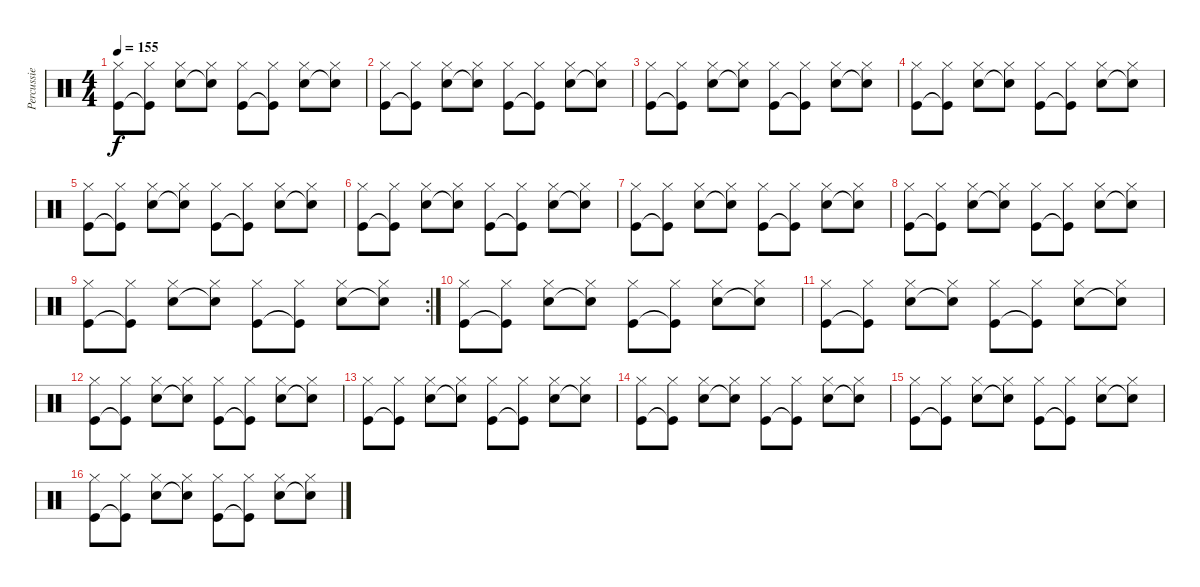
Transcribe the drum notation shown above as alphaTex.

\track ("Percussie" "Percussie") {instrument percussion}
\staff {score}
\articulation defaults
\ts (4 4)
\tempo 155
\clef neutral
\ks c
("Hi-Hat (closed)" "Kick (hit)").8{dy f} ("Hi-Hat (closed)" "Kick (hit)"{t}).8 ("Hi-Hat (closed)" "Snare (hit) 2").8 ("Hi-Hat (closed)" "Snare (hit) 2"{t}).8 ("Hi-Hat (closed)" "Kick (hit)").8 ("Hi-Hat (closed)" "Kick (hit)"{t}).8 ("Hi-Hat (closed)" "Snare (hit) 2").8 ("Hi-Hat (closed)" "Snare (hit) 2"{t}).8 |
("Hi-Hat (closed)" "Kick (hit)").8 ("Hi-Hat (closed)" "Kick (hit)"{t}).8 ("Hi-Hat (closed)" "Snare (hit) 2").8 ("Hi-Hat (closed)" "Snare (hit) 2"{t}).8 ("Hi-Hat (closed)" "Kick (hit)").8 ("Hi-Hat (closed)" "Kick (hit)"{t}).8 ("Hi-Hat (closed)" "Snare (hit) 2").8 ("Hi-Hat (closed)" "Snare (hit) 2"{t}).8 |
("Hi-Hat (closed)" "Kick (hit)").8 ("Hi-Hat (closed)" "Kick (hit)"{t}).8 ("Hi-Hat (closed)" "Snare (hit) 2").8 ("Hi-Hat (closed)" "Snare (hit) 2"{t}).8 ("Hi-Hat (closed)" "Kick (hit)").8 ("Hi-Hat (closed)" "Kick (hit)"{t}).8 ("Hi-Hat (closed)" "Snare (hit) 2").8 ("Hi-Hat (closed)" "Snare (hit) 2"{t}).8 |
("Hi-Hat (closed)" "Kick (hit)").8 ("Hi-Hat (closed)" "Kick (hit)"{t}).8 ("Hi-Hat (closed)" "Snare (hit) 2").8 ("Hi-Hat (closed)" "Snare (hit) 2"{t}).8 ("Hi-Hat (closed)" "Kick (hit)").8 ("Hi-Hat (closed)" "Kick (hit)"{t}).8 ("Hi-Hat (closed)" "Snare (hit) 2").8 ("Hi-Hat (closed)" "Snare (hit) 2"{t}).8 |
("Hi-Hat (closed)" "Kick (hit)").8 ("Hi-Hat (closed)" "Kick (hit)"{t}).8 ("Hi-Hat (closed)" "Snare (hit) 2").8 ("Hi-Hat (closed)" "Snare (hit) 2"{t}).8 ("Hi-Hat (closed)" "Kick (hit)").8 ("Hi-Hat (closed)" "Kick (hit)"{t}).8 ("Hi-Hat (closed)" "Snare (hit) 2").8 ("Hi-Hat (closed)" "Snare (hit) 2"{t}).8 |
("Hi-Hat (closed)" "Kick (hit)").8 ("Hi-Hat (closed)" "Kick (hit)"{t}).8 ("Hi-Hat (closed)" "Snare (hit) 2").8 ("Hi-Hat (closed)" "Snare (hit) 2"{t}).8 ("Hi-Hat (closed)" "Kick (hit)").8 ("Hi-Hat (closed)" "Kick (hit)"{t}).8 ("Hi-Hat (closed)" "Snare (hit) 2").8 ("Hi-Hat (closed)" "Snare (hit) 2"{t}).8 |
("Hi-Hat (closed)" "Kick (hit)").8 ("Hi-Hat (closed)" "Kick (hit)"{t}).8 ("Hi-Hat (closed)" "Snare (hit) 2").8 ("Hi-Hat (closed)" "Snare (hit) 2"{t}).8 ("Hi-Hat (closed)" "Kick (hit)").8 ("Hi-Hat (closed)" "Kick (hit)"{t}).8 ("Hi-Hat (closed)" "Snare (hit) 2").8 ("Hi-Hat (closed)" "Snare (hit) 2"{t}).8 |
("Hi-Hat (closed)" "Kick (hit)").8 ("Hi-Hat (closed)" "Kick (hit)"{t}).8 ("Hi-Hat (closed)" "Snare (hit) 2").8 ("Hi-Hat (closed)" "Snare (hit) 2"{t}).8 ("Hi-Hat (closed)" "Kick (hit)").8 ("Hi-Hat (closed)" "Kick (hit)"{t}).8 ("Hi-Hat (closed)" "Snare (hit) 2").8 ("Hi-Hat (closed)" "Snare (hit) 2"{t}).8 |
\rc 2
("Hi-Hat (closed)" "Kick (hit)").8 ("Hi-Hat (closed)" "Kick (hit)"{t}).8 ("Hi-Hat (closed)" "Snare (hit) 2").8 ("Hi-Hat (closed)" "Snare (hit) 2"{t}).8 ("Hi-Hat (closed)" "Kick (hit)").8 ("Hi-Hat (closed)" "Kick (hit)"{t}).8 ("Hi-Hat (closed)" "Snare (hit) 2").8 ("Hi-Hat (closed)" "Snare (hit) 2"{t}).8 |
("Hi-Hat (closed)" "Kick (hit)").8 ("Hi-Hat (closed)" "Kick (hit)"{t}).8 ("Hi-Hat (closed)" "Snare (hit) 2").8 ("Hi-Hat (closed)" "Snare (hit) 2"{t}).8 ("Hi-Hat (closed)" "Kick (hit)").8 ("Hi-Hat (closed)" "Kick (hit)"{t}).8 ("Hi-Hat (closed)" "Snare (hit) 2").8 ("Hi-Hat (closed)" "Snare (hit) 2"{t}).8 |
("Hi-Hat (closed)" "Kick (hit)").8 ("Hi-Hat (closed)" "Kick (hit)"{t}).8 ("Hi-Hat (closed)" "Snare (hit) 2").8 ("Hi-Hat (closed)" "Snare (hit) 2"{t}).8 ("Hi-Hat (closed)" "Kick (hit)").8 ("Hi-Hat (closed)" "Kick (hit)"{t}).8 ("Hi-Hat (closed)" "Snare (hit) 2").8 ("Hi-Hat (closed)" "Snare (hit) 2"{t}).8 |
("Hi-Hat (closed)" "Kick (hit)").8 ("Hi-Hat (closed)" "Kick (hit)"{t}).8 ("Hi-Hat (closed)" "Snare (hit) 2").8 ("Hi-Hat (closed)" "Snare (hit) 2"{t}).8 ("Hi-Hat (closed)" "Kick (hit)").8 ("Hi-Hat (closed)" "Kick (hit)"{t}).8 ("Hi-Hat (closed)" "Snare (hit) 2").8 ("Hi-Hat (closed)" "Snare (hit) 2"{t}).8 |
("Hi-Hat (closed)" "Kick (hit)").8 ("Hi-Hat (closed)" "Kick (hit)"{t}).8 ("Hi-Hat (closed)" "Snare (hit) 2").8 ("Hi-Hat (closed)" "Snare (hit) 2"{t}).8 ("Hi-Hat (closed)" "Kick (hit)").8 ("Hi-Hat (closed)" "Kick (hit)"{t}).8 ("Hi-Hat (closed)" "Snare (hit) 2").8 ("Hi-Hat (closed)" "Snare (hit) 2"{t}).8 |
("Hi-Hat (closed)" "Kick (hit)").8 ("Hi-Hat (closed)" "Kick (hit)"{t}).8 ("Hi-Hat (closed)" "Snare (hit) 2").8 ("Hi-Hat (closed)" "Snare (hit) 2"{t}).8 ("Hi-Hat (closed)" "Kick (hit)").8 ("Hi-Hat (closed)" "Kick (hit)"{t}).8 ("Hi-Hat (closed)" "Snare (hit) 2").8 ("Hi-Hat (closed)" "Snare (hit) 2"{t}).8 |
("Hi-Hat (closed)" "Kick (hit)").8 ("Hi-Hat (closed)" "Kick (hit)"{t}).8 ("Hi-Hat (closed)" "Snare (hit) 2").8 ("Hi-Hat (closed)" "Snare (hit) 2"{t}).8 ("Hi-Hat (closed)" "Kick (hit)").8 ("Hi-Hat (closed)" "Kick (hit)"{t}).8 ("Hi-Hat (closed)" "Snare (hit) 2").8 ("Hi-Hat (closed)" "Snare (hit) 2"{t}).8 |
("Hi-Hat (closed)" "Kick (hit)").8 ("Hi-Hat (closed)" "Kick (hit)"{t}).8 ("Hi-Hat (closed)" "Snare (hit) 2").8 ("Hi-Hat (closed)" "Snare (hit) 2"{t}).8 ("Hi-Hat (closed)" "Kick (hit)").8 ("Hi-Hat (closed)" "Kick (hit)"{t}).8 ("Hi-Hat (closed)" "Snare (hit) 2").8 ("Hi-Hat (closed)" "Snare (hit) 2"{t}).8
